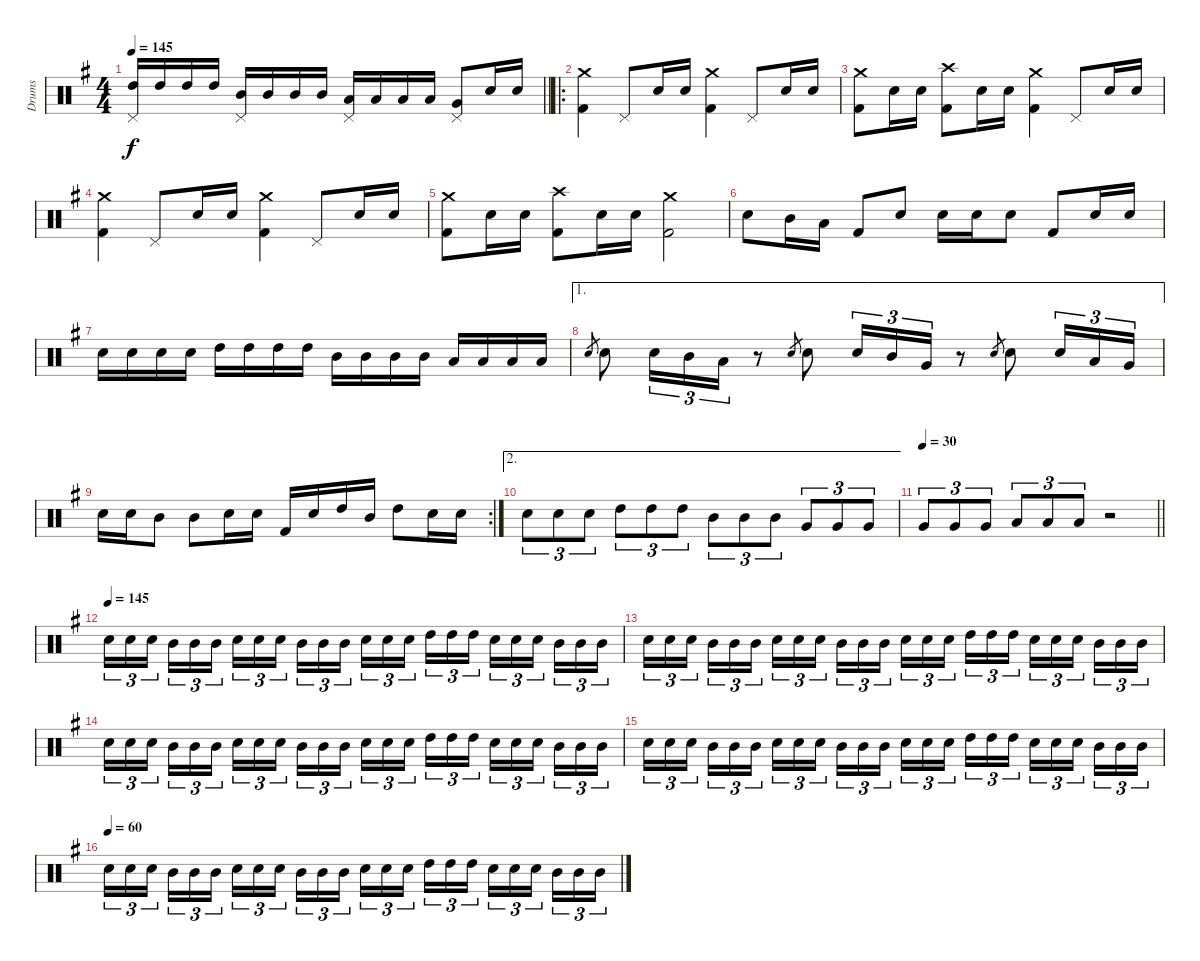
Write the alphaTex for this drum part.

\track ("Drums" "Drums") {instrument percussion}
\staff {score}
\articulation defaults
\ts (4 4)
\tempo 145
\clef neutral
\barLineRight lightlight
\ks eminor
("High Tom (hit)" "Pedal Hi-Hat (hit)").16{dy f} "High Tom (hit)".16 "High Tom (hit)".16 "High Tom (hit)".16 ("Mid Tom (hit)" "Pedal Hi-Hat (hit)").16 "Mid Tom (hit)".16 "Mid Tom (hit)".16 "Mid Tom (hit)".16 ("Low Tom (hit)" "Pedal Hi-Hat (hit)").16 "Low Tom (hit)".16 "Low Tom (hit)".16 "Low Tom (hit)".16 ("Very Low Tom (hit)" "Pedal Hi-Hat (hit)").8 "Electric Snare (hit)".16 "Electric Snare (hit)".16 |
\ro
("Crash medium (hit)" "Kick (hit) 2").4 "Pedal Hi-Hat (hit)".8 "Electric Snare (hit)".16 "Electric Snare (hit)".16 ("Crash medium (hit)" "Kick (hit) 2").4 "Pedal Hi-Hat (hit)".8 "Electric Snare (hit)".16 "Electric Snare (hit)".16 |
("Crash medium (hit)" "Kick (hit) 2").8 "Electric Snare (hit)".16 "Electric Snare (hit)".16 ("Crash high (hit)" "Kick (hit) 2").8 "Electric Snare (hit)".16 "Electric Snare (hit)".16 ("Crash medium (hit)" "Kick (hit) 2").4 "Pedal Hi-Hat (hit)".8 "Electric Snare (hit)".16 "Electric Snare (hit)".16 |
("Crash medium (hit)" "Kick (hit) 2").4 "Pedal Hi-Hat (hit)".8 "Electric Snare (hit)".16 "Electric Snare (hit)".16 ("Crash medium (hit)" "Kick (hit) 2").4 "Pedal Hi-Hat (hit)".8 "Electric Snare (hit)".16 "Electric Snare (hit)".16 |
("Crash medium (hit)" "Kick (hit) 2").8 "Electric Snare (hit)".16 "Electric Snare (hit)".16 ("Crash high (hit)" "Kick (hit) 2").8 "Electric Snare (hit)".16 "Electric Snare (hit)".16 ("Crash medium (hit)" "Kick (hit) 2").2 |
"Electric Snare (hit)".8 "Mid Tom (hit)".16 "Low Tom (hit)".16 "Kick (hit) 2".8 "Electric Snare (hit)".8 "Electric Snare (hit)".16 "Electric Snare (hit)".16 "Electric Snare (hit)".8 "Kick (hit) 2".8 "Electric Snare (hit)".16 "Electric Snare (hit)".16 |
"Electric Snare (hit)".16 "Electric Snare (hit)".16 "Electric Snare (hit)".16 "Electric Snare (hit)".16 "High Tom (hit)".16 "High Tom (hit)".16 "High Tom (hit)".16 "High Tom (hit)".16 "Mid Tom (hit)".16 "Mid Tom (hit)".16 "Mid Tom (hit)".16 "Mid Tom (hit)".16 "Low Tom (hit)".16 "Low Tom (hit)".16 "Low Tom (hit)".16 "Low Tom (hit)".16 |
\ae 1 "Electric Snare (hit)".8{gr} "Electric Snare (hit)".8 "Electric Snare (hit)".16{tu (3 2)} "Mid Tom (hit)".16{tu (3 2)} "Low Tom (hit)".16{tu (3 2)}
r.8 "Electric Snare (hit)".8{gr} "Electric Snare (hit)".8 "Electric Snare (hit)".16{tu (3 2)} "Mid Tom (hit)".16{tu (3 2)} "Very Low Tom (hit)".16{tu (3 2)} r.8 "Electric Snare (hit)".8{gr} "Electric Snare (hit)".8 "Electric Snare (hit)".16{tu (3 2)} "Low Tom (hit)".16{tu (3 2)} "Very Low Tom (hit)".16{tu (3 2)} |
\rc 2 "Electric Snare (hit)".16 "Electric Snare (hit)".16 "Mid Tom (hit)".8 "Mid Tom (hit)".8 "Electric Snare (hit)".16 "Electric Snare (hit)".16 "Kick (hit) 2".16 "Electric Snare (hit)".16 "High Tom (hit)".16 "Mid Tom (hit)".16 "High Tom (hit)".8 "Electric Snare (hit)".16 "Electric Snare (hit)".16
|
\ae 2 "Electric Snare (hit)".8{tu (3 2)} "Electric Snare (hit)".8{tu (3 2)} "Electric Snare (hit)".8{tu (3 2)} "High Tom (hit)".8{tu (3 2)} "High Tom (hit)".8{tu (3 2)} "High Tom (hit)".8{tu (3 2)} "Mid Tom (hit)".8{tu (3 2)} "Mid Tom (hit)".8{tu (3 2)} "Mid Tom (hit)".8{tu (3 2)} "Very Low Tom (hit)".8{tu (3 2)} "Very Low Tom (hit)".8{tu (3 2)} "Very Low Tom (hit)".8{tu (3 2)}
|
\tempo 30
\barLineRight lightlight "Very Low Tom (hit)".8{tu (3 2)} "Very Low Tom (hit)".8{tu (3 2)} "Very Low Tom (hit)".8{tu (3 2)} "Low Floor Tom (hit)".8{tu (3 2)} "Low Floor Tom (hit)".8{tu (3 2)} "Low Floor Tom (hit)".8{tu (3 2)}
r.2 |
\tempo (145)
"Electric Snare (hit)".16{tu (3 2)} "Electric Snare (hit)".16{tu (3 2)} "Electric Snare (hit)".16{tu (3 2) beam splitsecondary} "Mid Tom (hit)".16{tu (3 2)} "Mid Tom (hit)".16{tu (3 2)} "Mid Tom (hit)".16{tu (3 2)} "Electric Snare (hit)".16{tu (3 2)} "Electric Snare (hit)".16{tu (3 2)} "Electric Snare (hit)".16{tu (3 2) beam splitsecondary} "Mid Tom (hit)".16{tu (3 2)} "Mid Tom (hit)".16{tu (3 2)} "Mid Tom (hit)".16{tu (3 2)} "Electric Snare (hit)".16{tu (3 2)} "Electric Snare (hit)".16{tu (3 2)} "Electric Snare (hit)".16{tu (3 2) beam splitsecondary} "High Tom (hit)".16{tu (3 2)} "High Tom (hit)".16{tu (3 2)} "High Tom (hit)".16{tu (3 2)} "Electric Snare (hit)".16{tu (3 2)} "Electric Snare (hit)".16{tu (3 2)} "Electric Snare (hit)".16{tu (3 2) beam splitsecondary} "Mid Tom (hit)".16{tu (3 2)} "Mid Tom (hit)".16{tu (3 2)} "Mid Tom (hit)".16{tu (3 2)} |
"Electric Snare (hit)".16{tu (3 2)} "Electric Snare (hit)".16{tu (3 2)} "Electric Snare (hit)".16{tu (3 2) beam splitsecondary} "Mid Tom (hit)".16{tu (3 2)} "Mid Tom (hit)".16{tu (3 2)} "Mid Tom (hit)".16{tu (3 2)} "Electric Snare (hit)".16{tu (3 2)} "Electric Snare (hit)".16{tu (3 2)} "Electric Snare (hit)".16{tu (3 2) beam splitsecondary} "Mid Tom (hit)".16{tu (3 2)} "Mid Tom (hit)".16{tu (3 2)} "Mid Tom (hit)".16{tu (3 2)} "Electric Snare (hit)".16{tu (3 2)} "Electric Snare (hit)".16{tu (3 2)} "Electric Snare (hit)".16{tu (3 2) beam splitsecondary} "High Tom (hit)".16{tu (3 2)} "High Tom (hit)".16{tu (3 2)} "High Tom (hit)".16{tu (3 2)} "Electric Snare (hit)".16{tu (3 2)} "Electric Snare (hit)".16{tu (3 2)} "Electric Snare (hit)".16{tu (3 2) beam splitsecondary} "Mid Tom (hit)".16{tu (3 2)} "Mid Tom (hit)".16{tu (3 2)} "Mid Tom (hit)".16{tu (3 2)} |
"Electric Snare (hit)".16{tu (3 2)} "Electric Snare (hit)".16{tu (3 2)} "Electric Snare (hit)".16{tu (3 2) beam splitsecondary} "Mid Tom (hit)".16{tu (3 2)} "Mid Tom (hit)".16{tu (3 2)} "Mid Tom (hit)".16{tu (3 2)} "Electric Snare (hit)".16{tu (3 2)} "Electric Snare (hit)".16{tu (3 2)} "Electric Snare (hit)".16{tu (3 2) beam splitsecondary} "Mid Tom (hit)".16{tu (3 2)} "Mid Tom (hit)".16{tu (3 2)} "Mid Tom (hit)".16{tu (3 2)} "Electric Snare (hit)".16{tu (3 2)} "Electric Snare (hit)".16{tu (3 2)} "Electric Snare (hit)".16{tu (3 2) beam splitsecondary} "High Tom (hit)".16{tu (3 2)} "High Tom (hit)".16{tu (3 2)} "High Tom (hit)".16{tu (3 2)} "Electric Snare (hit)".16{tu (3 2)} "Electric Snare (hit)".16{tu (3 2)} "Electric Snare (hit)".16{tu (3 2) beam splitsecondary} "Mid Tom (hit)".16{tu (3 2)} "Mid Tom (hit)".16{tu (3 2)} "Mid Tom (hit)".16{tu (3 2)} |
"Electric Snare (hit)".16{tu (3 2)} "Electric Snare (hit)".16{tu (3 2)} "Electric Snare (hit)".16{tu (3 2) beam splitsecondary} "Mid Tom (hit)".16{tu (3 2)} "Mid Tom (hit)".16{tu (3 2)} "Mid Tom (hit)".16{tu (3 2)} "Electric Snare (hit)".16{tu (3 2)} "Electric Snare (hit)".16{tu (3 2)} "Electric Snare (hit)".16{tu (3 2) beam splitsecondary} "Mid Tom (hit)".16{tu (3 2)} "Mid Tom (hit)".16{tu (3 2)} "Mid Tom (hit)".16{tu (3 2)} "Electric Snare (hit)".16{tu (3 2)} "Electric Snare (hit)".16{tu (3 2)} "Electric Snare (hit)".16{tu (3 2) beam splitsecondary} "High Tom (hit)".16{tu (3 2)} "High Tom (hit)".16{tu (3 2)} "High Tom (hit)".16{tu (3 2)} "Electric Snare (hit)".16{tu (3 2)} "Electric Snare (hit)".16{tu (3 2)} "Electric Snare (hit)".16{tu (3 2) beam splitsecondary} "Mid Tom (hit)".16{tu (3 2)} "Mid Tom (hit)".16{tu (3 2)} "Mid Tom (hit)".16{tu (3 2)} |
\tempo (60)
"Electric Snare (hit)".16{tu (3 2)} "Electric Snare (hit)".16{tu (3 2)} "Electric Snare (hit)".16{tu (3 2) beam splitsecondary} "Mid Tom (hit)".16{tu (3 2)} "Mid Tom (hit)".16{tu (3 2)} "Mid Tom (hit)".16{tu (3 2)} "Electric Snare (hit)".16{tu (3 2)} "Electric Snare (hit)".16{tu (3 2)} "Electric Snare (hit)".16{tu (3 2) beam splitsecondary} "Mid Tom (hit)".16{tu (3 2)} "Mid Tom (hit)".16{tu (3 2)} "Mid Tom (hit)".16{tu (3 2)} "Electric Snare (hit)".16{tu (3 2)} "Electric Snare (hit)".16{tu (3 2)} "Electric Snare (hit)".16{tu (3 2) beam splitsecondary} "High Tom (hit)".16{tu (3 2)} "High Tom (hit)".16{tu (3 2)} "High Tom (hit)".16{tu (3 2)} "Electric Snare (hit)".16{tu (3 2)} "Electric Snare (hit)".16{tu (3 2)} "Electric Snare (hit)".16{tu (3 2) beam splitsecondary} "Mid Tom (hit)".16{tu (3 2)} "Mid Tom (hit)".16{tu (3 2)} "Mid Tom (hit)".16{tu (3 2)}
